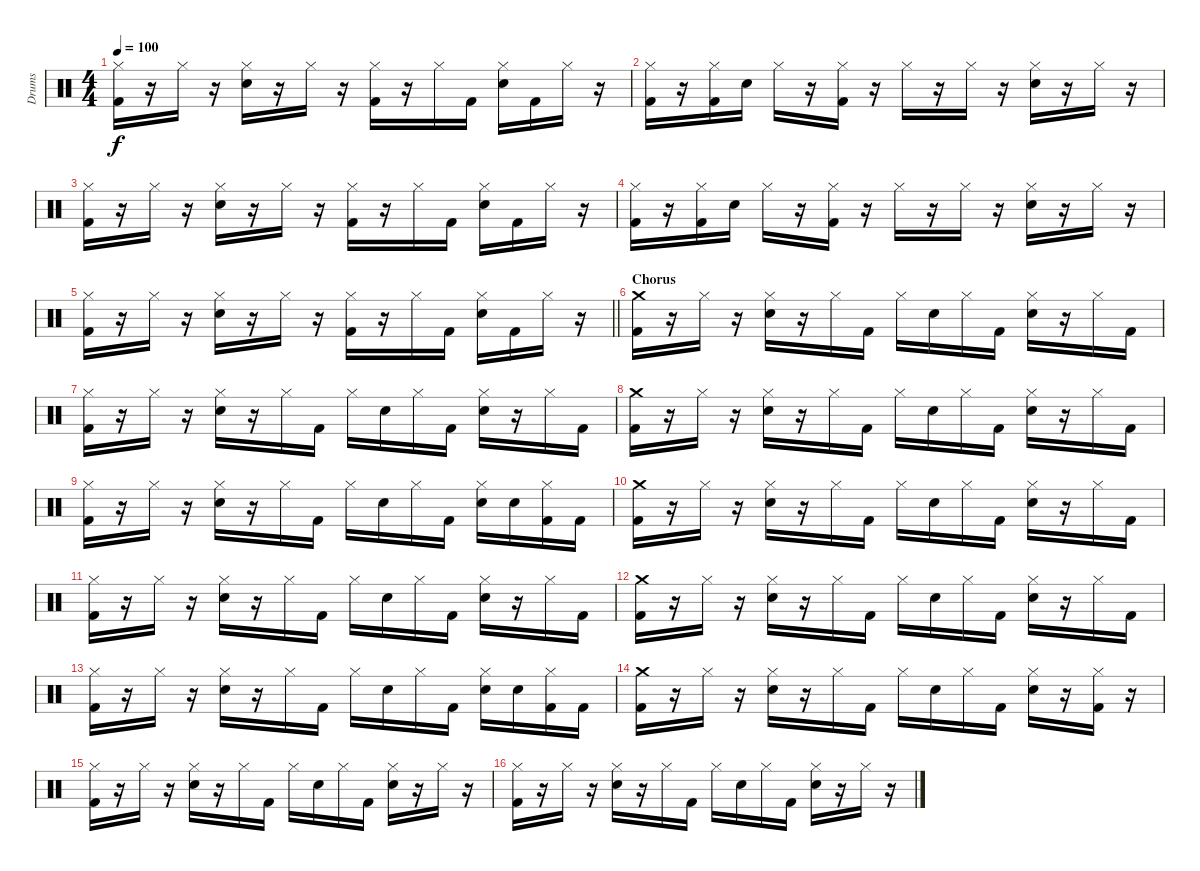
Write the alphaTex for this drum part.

\track ("Drums" "Drums") {instrument percussion}
\staff {score}
\articulation defaults
\ts (4 4)
\tempo 100
\clef neutral
\ks c
("Hi-Hat (closed)" "Kick (hit) 2").16{dy f} r.16 "Hi-Hat (closed)".16 r.16 ("Hi-Hat (closed)" "Snare (hit) 2").16 r.16 "Hi-Hat (closed)".16 r.16 ("Hi-Hat (closed)" "Kick (hit) 2").16 r.16 "Hi-Hat (closed)".16 "Kick (hit) 2".16 ("Hi-Hat (closed)" "Snare (hit) 2").16 "Kick (hit) 2".16 "Hi-Hat (closed)".16 r.16 |
("Hi-Hat (closed)" "Kick (hit) 2").16 r.16 ("Hi-Hat (closed)" "Kick (hit) 2").16 "Snare (hit) 2".16 "Hi-Hat (closed)".16 r.16 ("Hi-Hat (closed)" "Kick (hit) 2").16 r.16 "Hi-Hat (closed)".16 r.16 "Hi-Hat (closed)".16 r.16 ("Hi-Hat (closed)" "Snare (hit) 2").16 r.16 "Hi-Hat (closed)".16 r.16 |
("Hi-Hat (closed)" "Kick (hit) 2").16 r.16 "Hi-Hat (closed)".16 r.16 ("Hi-Hat (closed)" "Snare (hit) 2").16 r.16 "Hi-Hat (closed)".16 r.16 ("Hi-Hat (closed)" "Kick (hit) 2").16 r.16 "Hi-Hat (closed)".16 "Kick (hit) 2".16 ("Hi-Hat (closed)" "Snare (hit) 2").16 "Kick (hit) 2".16 "Hi-Hat (closed)".16 r.16 |
("Hi-Hat (closed)" "Kick (hit) 2").16 r.16 ("Hi-Hat (closed)" "Kick (hit) 2").16 "Snare (hit) 2".16 "Hi-Hat (closed)".16 r.16 ("Hi-Hat (closed)" "Kick (hit) 2").16 r.16 "Hi-Hat (closed)".16 r.16 "Hi-Hat (closed)".16 r.16 ("Hi-Hat (closed)" "Snare (hit) 2").16 r.16 "Hi-Hat (closed)".16 r.16 |
\barLineRight lightlight
("Hi-Hat (closed)" "Kick (hit) 2").16 r.16 "Hi-Hat (closed)".16 r.16 ("Hi-Hat (closed)" "Snare (hit) 2").16 r.16 "Hi-Hat (closed)".16 r.16 ("Hi-Hat (closed)" "Kick (hit) 2").16 r.16 "Hi-Hat (closed)".16 "Kick (hit) 2".16 ("Hi-Hat (closed)" "Snare (hit) 2").16 "Kick (hit) 2".16 "Hi-Hat (closed)".16 r.16 |
\section ("" "Chorus")
("Crash medium (hit)" "Kick (hit) 2").16 r.16 "Hi-Hat (closed)".16 r.16 ("Hi-Hat (closed)" "Snare (hit) 2").16 r.16 "Hi-Hat (closed)".16 "Kick (hit) 2".16 "Hi-Hat (closed)".16 "Snare (hit) 2".16 "Hi-Hat (closed)".16 "Kick (hit) 2".16 ("Hi-Hat (closed)" "Snare (hit) 2").16 r.16 "Hi-Hat (closed)".16 "Kick (hit) 2".16 |
("Hi-Hat (closed)" "Kick (hit) 2").16 r.16 "Hi-Hat (closed)".16 r.16 ("Hi-Hat (closed)" "Snare (hit) 2").16 r.16 "Hi-Hat (closed)".16 "Kick (hit) 2".16 "Hi-Hat (closed)".16 "Snare (hit) 2".16 "Hi-Hat (closed)".16 "Kick (hit) 2".16 ("Hi-Hat (closed)" "Snare (hit) 2").16 r.16 "Hi-Hat (closed)".16 "Kick (hit) 2".16 |
("Crash medium (hit)" "Kick (hit) 2").16 r.16 "Hi-Hat (closed)".16 r.16 ("Hi-Hat (closed)" "Snare (hit) 2").16 r.16 "Hi-Hat (closed)".16 "Kick (hit) 2".16 "Hi-Hat (closed)".16 "Snare (hit) 2".16 "Hi-Hat (closed)".16 "Kick (hit) 2".16 ("Hi-Hat (closed)" "Snare (hit) 2").16 r.16 "Hi-Hat (closed)".16 "Kick (hit) 2".16 |
("Hi-Hat (closed)" "Kick (hit) 2").16 r.16 "Hi-Hat (closed)".16 r.16 ("Hi-Hat (closed)" "Snare (hit) 2").16 r.16 "Hi-Hat (closed)".16 "Kick (hit) 2".16 "Hi-Hat (closed)".16 "Snare (hit) 2".16 "Hi-Hat (closed)".16 "Kick (hit) 2".16 ("Hi-Hat (closed)" "Snare (hit) 2").16 "Snare (hit) 2".16 ("Hi-Hat (closed)" "Kick (hit) 2").16 "Kick (hit) 2".16 |
("Crash medium (hit)" "Kick (hit) 2").16 r.16 "Hi-Hat (closed)".16 r.16 ("Hi-Hat (closed)" "Snare (hit) 2").16 r.16 "Hi-Hat (closed)".16 "Kick (hit) 2".16 "Hi-Hat (closed)".16 "Snare (hit) 2".16 "Hi-Hat (closed)".16 "Kick (hit) 2".16 ("Hi-Hat (closed)" "Snare (hit) 2").16 r.16 "Hi-Hat (closed)".16 "Kick (hit) 2".16 |
("Hi-Hat (closed)" "Kick (hit) 2").16 r.16 "Hi-Hat (closed)".16 r.16 ("Hi-Hat (closed)" "Snare (hit) 2").16 r.16 "Hi-Hat (closed)".16 "Kick (hit) 2".16 "Hi-Hat (closed)".16 "Snare (hit) 2".16 "Hi-Hat (closed)".16 "Kick (hit) 2".16 ("Hi-Hat (closed)" "Snare (hit) 2").16 r.16 "Hi-Hat (closed)".16 "Kick (hit) 2".16 |
("Crash medium (hit)" "Kick (hit) 2").16 r.16 "Hi-Hat (closed)".16 r.16 ("Hi-Hat (closed)" "Snare (hit) 2").16 r.16 "Hi-Hat (closed)".16 "Kick (hit) 2".16 "Hi-Hat (closed)".16 "Snare (hit) 2".16 "Hi-Hat (closed)".16 "Kick (hit) 2".16 ("Hi-Hat (closed)" "Snare (hit) 2").16 r.16 "Hi-Hat (closed)".16 "Kick (hit) 2".16 |
("Hi-Hat (closed)" "Kick (hit) 2").16 r.16 "Hi-Hat (closed)".16 r.16 ("Hi-Hat (closed)" "Snare (hit) 2").16 r.16 "Hi-Hat (closed)".16 "Kick (hit) 2".16 "Hi-Hat (closed)".16 "Snare (hit) 2".16 "Hi-Hat (closed)".16 "Kick (hit) 2".16 ("Hi-Hat (closed)" "Snare (hit) 2").16 "Snare (hit) 2".16 ("Hi-Hat (closed)" "Kick (hit) 2").16 "Kick (hit) 2".16 |
("Crash medium (hit)" "Kick (hit) 2").16 r.16 "Hi-Hat (closed)".16 r.16 ("Hi-Hat (closed)" "Snare (hit) 2").16 r.16 "Hi-Hat (closed)".16 "Kick (hit) 2".16 "Hi-Hat (closed)".16 "Snare (hit) 2".16 "Hi-Hat (closed)".16 "Kick (hit) 2".16 ("Hi-Hat (closed)" "Snare (hit) 2").16 r.16 ("Hi-Hat (closed)" "Kick (hit) 2").16 r.16 |
("Hi-Hat (closed)" "Kick (hit) 2").16 r.16 "Hi-Hat (closed)".16 r.16 ("Hi-Hat (closed)" "Snare (hit) 2").16 r.16 "Hi-Hat (closed)".16 "Kick (hit) 2".16 "Hi-Hat (closed)".16 "Snare (hit) 2".16 "Hi-Hat (closed)".16 "Kick (hit) 2".16 ("Hi-Hat (closed)" "Snare (hit) 2").16 r.16 "Hi-Hat (closed)".16 r.16 |
("Hi-Hat (closed)" "Kick (hit) 2").16 r.16 "Hi-Hat (closed)".16 r.16 ("Hi-Hat (closed)" "Snare (hit) 2").16 r.16 "Hi-Hat (closed)".16 "Kick (hit) 2".16 "Hi-Hat (closed)".16 "Snare (hit) 2".16 "Hi-Hat (closed)".16 "Kick (hit) 2".16 ("Hi-Hat (closed)" "Snare (hit) 2").16 r.16 "Hi-Hat (closed)".16 r.16
